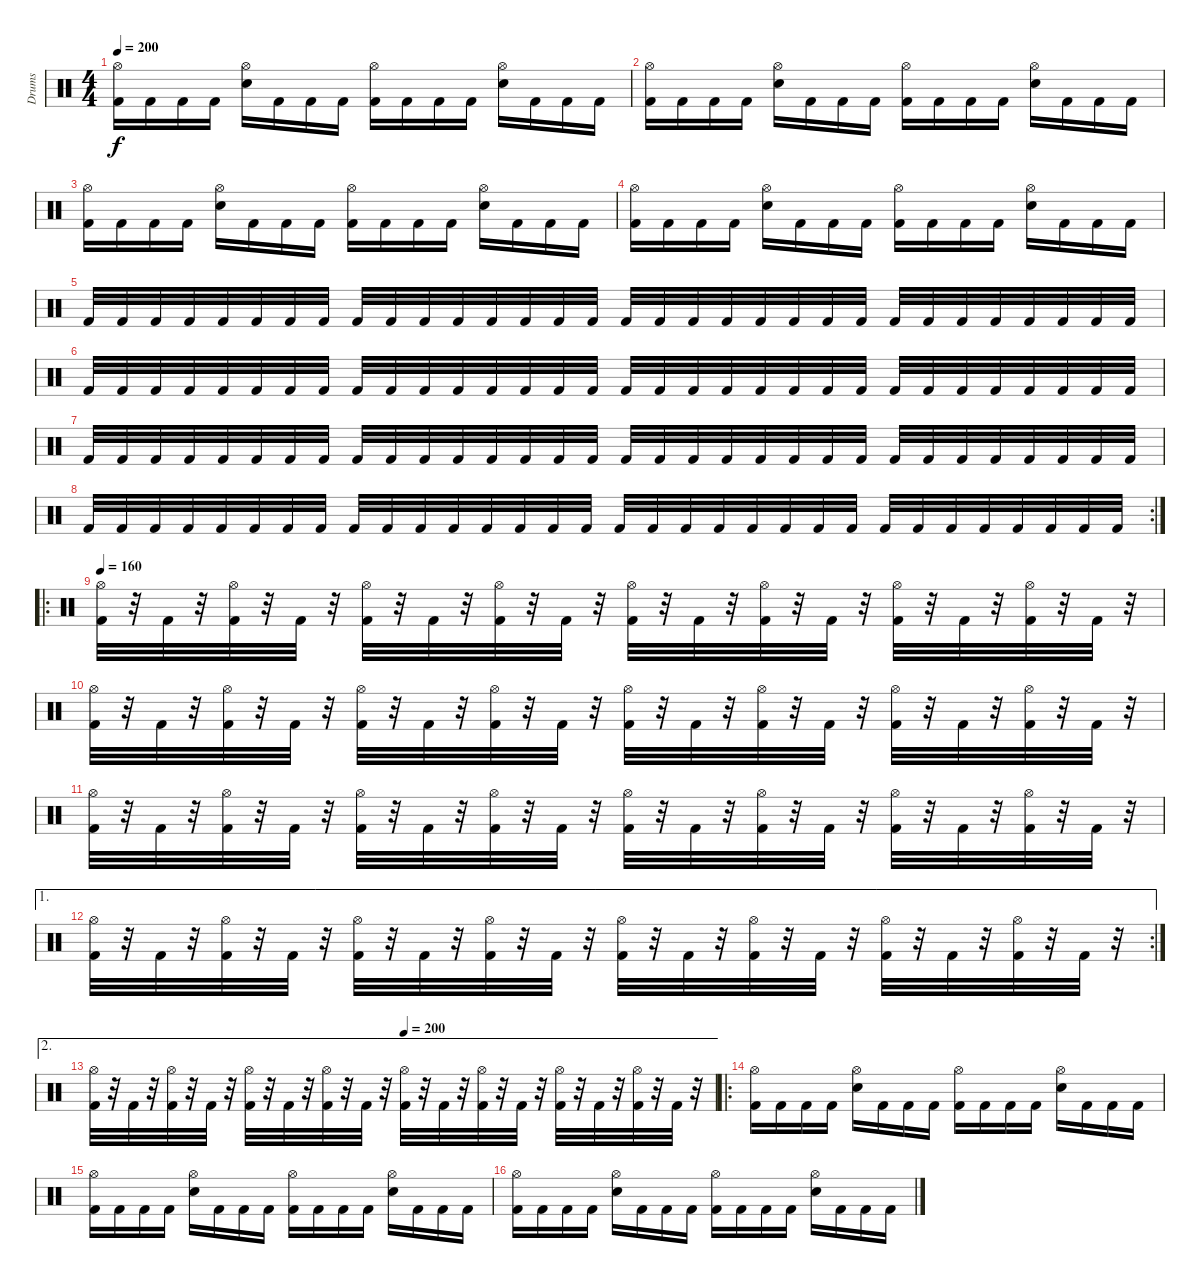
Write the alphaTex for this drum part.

\track ("Drums" "Drums") {instrument percussion}
\staff {score}
\articulation defaults
\ts (4 4)
\tempo 200
\clef neutral
\ks c
("Hi-Hat (open)" "Kick (hit) 2").16{dy f} "Kick (hit) 2".16 "Kick (hit) 2".16 "Kick (hit) 2".16 ("Hi-Hat (open)" "Snare (hit) 2").16 "Kick (hit) 2".16 "Kick (hit) 2".16 "Kick (hit) 2".16 ("Hi-Hat (open)" "Kick (hit) 2").16 "Kick (hit) 2".16 "Kick (hit) 2".16 "Kick (hit) 2".16 ("Hi-Hat (open)" "Snare (hit) 2").16 "Kick (hit) 2".16 "Kick (hit) 2".16 "Kick (hit) 2".16 |
("Hi-Hat (open)" "Kick (hit) 2").16 "Kick (hit) 2".16 "Kick (hit) 2".16 "Kick (hit) 2".16 ("Hi-Hat (open)" "Snare (hit) 2").16 "Kick (hit) 2".16 "Kick (hit) 2".16 "Kick (hit) 2".16 ("Hi-Hat (open)" "Kick (hit) 2").16 "Kick (hit) 2".16 "Kick (hit) 2".16 "Kick (hit) 2".16 ("Hi-Hat (open)" "Snare (hit) 2").16 "Kick (hit) 2".16 "Kick (hit) 2".16 "Kick (hit) 2".16 |
("Hi-Hat (open)" "Kick (hit) 2").16 "Kick (hit) 2".16 "Kick (hit) 2".16 "Kick (hit) 2".16 ("Hi-Hat (open)" "Snare (hit) 2").16 "Kick (hit) 2".16 "Kick (hit) 2".16 "Kick (hit) 2".16 ("Hi-Hat (open)" "Kick (hit) 2").16 "Kick (hit) 2".16 "Kick (hit) 2".16 "Kick (hit) 2".16 ("Hi-Hat (open)" "Snare (hit) 2").16 "Kick (hit) 2".16 "Kick (hit) 2".16 "Kick (hit) 2".16 |
("Hi-Hat (open)" "Kick (hit) 2").16 "Kick (hit) 2".16 "Kick (hit) 2".16 "Kick (hit) 2".16 ("Hi-Hat (open)" "Snare (hit) 2").16 "Kick (hit) 2".16 "Kick (hit) 2".16 "Kick (hit) 2".16 ("Hi-Hat (open)" "Kick (hit) 2").16 "Kick (hit) 2".16 "Kick (hit) 2".16 "Kick (hit) 2".16 ("Hi-Hat (open)" "Snare (hit) 2").16 "Kick (hit) 2".16 "Kick (hit) 2".16 "Kick (hit) 2".16 |
"Kick (hit) 2".32 "Kick (hit) 2".32 "Kick (hit) 2".32 "Kick (hit) 2".32 "Kick (hit) 2".32 "Kick (hit) 2".32 "Kick (hit) 2".32 "Kick (hit) 2".32 "Kick (hit) 2".32 "Kick (hit) 2".32 "Kick (hit) 2".32 "Kick (hit) 2".32 "Kick (hit) 2".32 "Kick (hit) 2".32 "Kick (hit) 2".32 "Kick (hit) 2".32 "Kick (hit) 2".32 "Kick (hit) 2".32 "Kick (hit) 2".32 "Kick (hit) 2".32 "Kick (hit) 2".32 "Kick (hit) 2".32 "Kick (hit) 2".32 "Kick (hit) 2".32 "Kick (hit) 2".32 "Kick (hit) 2".32 "Kick (hit) 2".32 "Kick (hit) 2".32 "Kick (hit) 2".32 "Kick (hit) 2".32 "Kick (hit) 2".32 "Kick (hit) 2".32 |
"Kick (hit) 2".32 "Kick (hit) 2".32 "Kick (hit) 2".32 "Kick (hit) 2".32 "Kick (hit) 2".32 "Kick (hit) 2".32 "Kick (hit) 2".32 "Kick (hit) 2".32 "Kick (hit) 2".32 "Kick (hit) 2".32 "Kick (hit) 2".32 "Kick (hit) 2".32 "Kick (hit) 2".32 "Kick (hit) 2".32 "Kick (hit) 2".32 "Kick (hit) 2".32 "Kick (hit) 2".32 "Kick (hit) 2".32 "Kick (hit) 2".32 "Kick (hit) 2".32 "Kick (hit) 2".32 "Kick (hit) 2".32 "Kick (hit) 2".32 "Kick (hit) 2".32 "Kick (hit) 2".32 "Kick (hit) 2".32 "Kick (hit) 2".32 "Kick (hit) 2".32 "Kick (hit) 2".32 "Kick (hit) 2".32 "Kick (hit) 2".32 "Kick (hit) 2".32 |
"Kick (hit) 2".32 "Kick (hit) 2".32 "Kick (hit) 2".32 "Kick (hit) 2".32 "Kick (hit) 2".32 "Kick (hit) 2".32 "Kick (hit) 2".32 "Kick (hit) 2".32 "Kick (hit) 2".32 "Kick (hit) 2".32 "Kick (hit) 2".32 "Kick (hit) 2".32 "Kick (hit) 2".32 "Kick (hit) 2".32 "Kick (hit) 2".32 "Kick (hit) 2".32 "Kick (hit) 2".32 "Kick (hit) 2".32 "Kick (hit) 2".32 "Kick (hit) 2".32 "Kick (hit) 2".32 "Kick (hit) 2".32 "Kick (hit) 2".32 "Kick (hit) 2".32 "Kick (hit) 2".32 "Kick (hit) 2".32 "Kick (hit) 2".32 "Kick (hit) 2".32 "Kick (hit) 2".32 "Kick (hit) 2".32 "Kick (hit) 2".32 "Kick (hit) 2".32 |
\rc 2 "Kick (hit) 2".32 "Kick (hit) 2".32 "Kick (hit) 2".32 "Kick (hit) 2".32 "Kick (hit) 2".32 "Kick (hit) 2".32 "Kick (hit) 2".32 "Kick (hit) 2".32 "Kick (hit) 2".32 "Kick (hit) 2".32 "Kick (hit) 2".32 "Kick (hit) 2".32 "Kick (hit) 2".32 "Kick (hit) 2".32 "Kick (hit) 2".32 "Kick (hit) 2".32 "Kick (hit) 2".32 "Kick (hit) 2".32 "Kick (hit) 2".32 "Kick (hit) 2".32 "Kick (hit) 2".32 "Kick (hit) 2".32 "Kick (hit) 2".32 "Kick (hit) 2".32 "Kick (hit) 2".32 "Kick (hit) 2".32 "Kick (hit) 2".32 "Kick (hit) 2".32 "Kick (hit) 2".32 "Kick (hit) 2".32 "Kick (hit) 2".32 "Kick (hit) 2".32
|
\ro
\tempo 160
("Hi-Hat (open)" "Kick (hit) 2").32 r.32 "Kick (hit) 2".32 r.32 ("Hi-Hat (open)" "Kick (hit) 2").32 r.32 "Kick (hit) 2".32 r.32 ("Hi-Hat (open)" "Kick (hit) 2").32 r.32 "Kick (hit) 2".32 r.32 ("Hi-Hat (open)" "Kick (hit) 2").32 r.32 "Kick (hit) 2".32 r.32 ("Hi-Hat (open)" "Kick (hit) 2").32 r.32 "Kick (hit) 2".32 r.32 ("Hi-Hat (open)" "Kick (hit) 2").32 r.32 "Kick (hit) 2".32 r.32 ("Hi-Hat (open)" "Kick (hit) 2").32 r.32 "Kick (hit) 2".32 r.32 ("Hi-Hat (open)" "Kick (hit) 2").32 r.32 "Kick (hit) 2".32 r.32 |
("Hi-Hat (open)" "Kick (hit) 2").32 r.32 "Kick (hit) 2".32 r.32 ("Hi-Hat (open)" "Kick (hit) 2").32 r.32 "Kick (hit) 2".32 r.32 ("Hi-Hat (open)" "Kick (hit) 2").32 r.32 "Kick (hit) 2".32 r.32 ("Hi-Hat (open)" "Kick (hit) 2").32 r.32 "Kick (hit) 2".32 r.32 ("Hi-Hat (open)" "Kick (hit) 2").32 r.32 "Kick (hit) 2".32 r.32 ("Hi-Hat (open)" "Kick (hit) 2").32 r.32 "Kick (hit) 2".32 r.32 ("Hi-Hat (open)" "Kick (hit) 2").32 r.32 "Kick (hit) 2".32 r.32 ("Hi-Hat (open)" "Kick (hit) 2").32 r.32 "Kick (hit) 2".32 r.32 |
("Hi-Hat (open)" "Kick (hit) 2").32 r.32 "Kick (hit) 2".32 r.32 ("Hi-Hat (open)" "Kick (hit) 2").32 r.32 "Kick (hit) 2".32 r.32 ("Hi-Hat (open)" "Kick (hit) 2").32 r.32 "Kick (hit) 2".32 r.32 ("Hi-Hat (open)" "Kick (hit) 2").32 r.32 "Kick (hit) 2".32 r.32 ("Hi-Hat (open)" "Kick (hit) 2").32 r.32 "Kick (hit) 2".32 r.32 ("Hi-Hat (open)" "Kick (hit) 2").32 r.32 "Kick (hit) 2".32 r.32 ("Hi-Hat (open)" "Kick (hit) 2").32 r.32 "Kick (hit) 2".32 r.32 ("Hi-Hat (open)" "Kick (hit) 2").32 r.32 "Kick (hit) 2".32 r.32 |
\ae 1
\rc 2
("Hi-Hat (open)" "Kick (hit) 2").32 r.32 "Kick (hit) 2".32 r.32 ("Hi-Hat (open)" "Kick (hit) 2").32 r.32 "Kick (hit) 2".32 r.32 ("Hi-Hat (open)" "Kick (hit) 2").32 r.32 "Kick (hit) 2".32 r.32 ("Hi-Hat (open)" "Kick (hit) 2").32 r.32 "Kick (hit) 2".32 r.32 ("Hi-Hat (open)" "Kick (hit) 2").32 r.32 "Kick (hit) 2".32 r.32 ("Hi-Hat (open)" "Kick (hit) 2").32 r.32 "Kick (hit) 2".32 r.32 ("Hi-Hat (open)" "Kick (hit) 2").32 r.32 "Kick (hit) 2".32 r.32 ("Hi-Hat (open)" "Kick (hit) 2").32 r.32 "Kick (hit) 2".32 r.32 |
\ae 2
\tempo (200 0.5)
("Hi-Hat (open)" "Kick (hit) 2").32 r.32 "Kick (hit) 2".32 r.32 ("Hi-Hat (open)" "Kick (hit) 2").32 r.32 "Kick (hit) 2".32 r.32 ("Hi-Hat (open)" "Kick (hit) 2").32 r.32 "Kick (hit) 2".32 r.32 ("Hi-Hat (open)" "Kick (hit) 2").32 r.32 "Kick (hit) 2".32 r.32 ("Hi-Hat (open)" "Kick (hit) 2").32 r.32 "Kick (hit) 2".32 r.32 ("Hi-Hat (open)" "Kick (hit) 2").32 r.32 "Kick (hit) 2".32 r.32 ("Hi-Hat (open)" "Kick (hit) 2").32 r.32 "Kick (hit) 2".32 r.32 ("Hi-Hat (open)" "Kick (hit) 2").32 r.32 "Kick (hit) 2".32 r.32 |
\ro
("Hi-Hat (open)" "Kick (hit) 2").16 "Kick (hit) 2".16 "Kick (hit) 2".16 "Kick (hit) 2".16 ("Hi-Hat (open)" "Snare (hit) 2").16 "Kick (hit) 2".16 "Kick (hit) 2".16 "Kick (hit) 2".16 ("Hi-Hat (open)" "Kick (hit) 2").16 "Kick (hit) 2".16 "Kick (hit) 2".16 "Kick (hit) 2".16 ("Hi-Hat (open)" "Snare (hit) 2").16 "Kick (hit) 2".16 "Kick (hit) 2".16 "Kick (hit) 2".16 |
("Hi-Hat (open)" "Kick (hit) 2").16 "Kick (hit) 2".16 "Kick (hit) 2".16 "Kick (hit) 2".16 ("Hi-Hat (open)" "Snare (hit) 2").16 "Kick (hit) 2".16 "Kick (hit) 2".16 "Kick (hit) 2".16 ("Hi-Hat (open)" "Kick (hit) 2").16 "Kick (hit) 2".16 "Kick (hit) 2".16 "Kick (hit) 2".16 ("Hi-Hat (open)" "Snare (hit) 2").16 "Kick (hit) 2".16 "Kick (hit) 2".16 "Kick (hit) 2".16 |
("Hi-Hat (open)" "Kick (hit) 2").16 "Kick (hit) 2".16 "Kick (hit) 2".16 "Kick (hit) 2".16 ("Hi-Hat (open)" "Snare (hit) 2").16 "Kick (hit) 2".16 "Kick (hit) 2".16 "Kick (hit) 2".16 ("Hi-Hat (open)" "Kick (hit) 2").16 "Kick (hit) 2".16 "Kick (hit) 2".16 "Kick (hit) 2".16 ("Hi-Hat (open)" "Snare (hit) 2").16 "Kick (hit) 2".16 "Kick (hit) 2".16 "Kick (hit) 2".16
